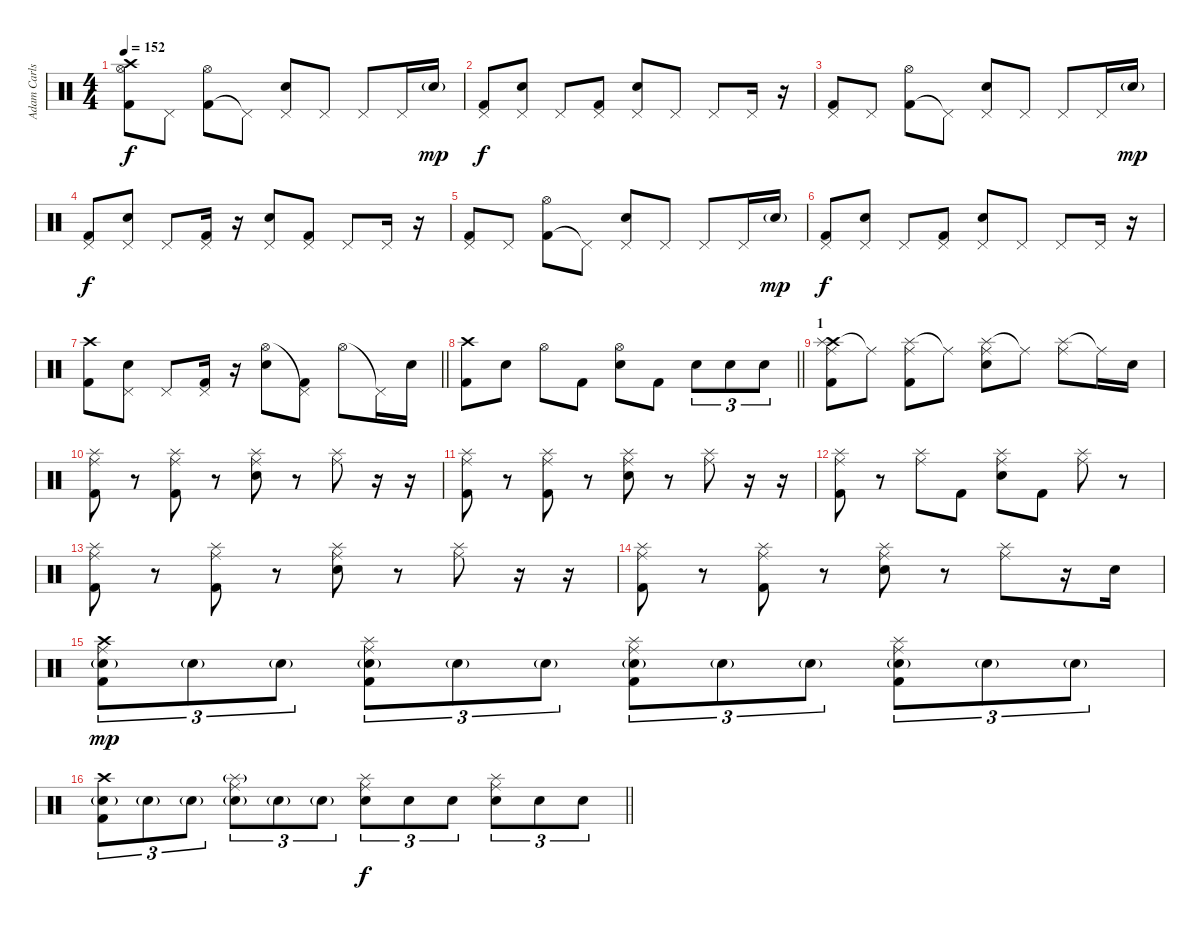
\track ("Adam Carlson" "Adam Carls") {instrument percussion}
\staff {score}
\articulation defaults
\ts (4 4)
\tempo 152
\clef neutral
\ks c
("Crash high (hit)" "Kick (hit) 2" "Hi-Hat (open)").8{dy f} "Pedal Hi-Hat (hit)".8 ("Kick (hit) 2" "Hi-Hat (open)").8 "Pedal Hi-Hat (hit)"{t}.8 ("Snare (hit) 2" "Pedal Hi-Hat (hit)").8 "Pedal Hi-Hat (hit)".8 "Pedal Hi-Hat (hit)".8 "Pedal Hi-Hat (hit)".16 "Snare (hit) 2"{g}.16{dy mp} |
("Kick (hit) 2" "Pedal Hi-Hat (hit)").8{dy f} ("Snare (hit) 2" "Pedal Hi-Hat (hit)").8 "Pedal Hi-Hat (hit)".8 ("Kick (hit) 2" "Pedal Hi-Hat (hit)").8 ("Snare (hit) 2" "Pedal Hi-Hat (hit)").8 "Pedal Hi-Hat (hit)".8 "Pedal Hi-Hat (hit)".8 "Pedal Hi-Hat (hit)".16 r.16 |
("Kick (hit) 2" "Pedal Hi-Hat (hit)").8 "Pedal Hi-Hat (hit)".8 ("Kick (hit) 2" "Hi-Hat (open)").8 "Pedal Hi-Hat (hit)"{t}.8 ("Snare (hit) 2" "Pedal Hi-Hat (hit)").8 "Pedal Hi-Hat (hit)".8 "Pedal Hi-Hat (hit)".8 "Pedal Hi-Hat (hit)".16 "Snare (hit) 2"{g}.16{dy mp} |
("Kick (hit) 2" "Pedal Hi-Hat (hit)").8{dy f} ("Snare (hit) 2" "Pedal Hi-Hat (hit)").8 "Pedal Hi-Hat (hit)".8 ("Kick (hit) 2" "Pedal Hi-Hat (hit)").16 r.16 ("Snare (hit) 2" "Pedal Hi-Hat (hit)").8 ("Kick (hit) 2" "Pedal Hi-Hat (hit)").8 "Pedal Hi-Hat (hit)".8 "Pedal Hi-Hat (hit)".16 r.16 |
("Kick (hit) 2" "Pedal Hi-Hat (hit)").8 "Pedal Hi-Hat (hit)".8 ("Kick (hit) 2" "Hi-Hat (open)").8 "Pedal Hi-Hat (hit)"{t}.8 ("Snare (hit) 2" "Pedal Hi-Hat (hit)").8 "Pedal Hi-Hat (hit)".8 "Pedal Hi-Hat (hit)".8 "Pedal Hi-Hat (hit)".16 "Snare (hit) 2"{g}.16{dy mp} |
("Kick (hit) 2" "Pedal Hi-Hat (hit)").8{dy f} ("Snare (hit) 2" "Pedal Hi-Hat (hit)").8 "Pedal Hi-Hat (hit)".8 ("Kick (hit) 2" "Pedal Hi-Hat (hit)").8 ("Snare (hit) 2" "Pedal Hi-Hat (hit)").8 "Pedal Hi-Hat (hit)".8 "Pedal Hi-Hat (hit)".8 "Pedal Hi-Hat (hit)".16 r.16 |
\barLineRight lightlight
("Crash high (hit)" "Kick (hit) 2").8 ("Snare (hit) 2" "Pedal Hi-Hat (hit)").8 "Pedal Hi-Hat (hit)".8 ("Kick (hit) 2" "Pedal Hi-Hat (hit)").16 r.16 ("Snare (hit) 2" "Hi-Hat (open)").8 ("Kick (hit) 2" "Pedal Hi-Hat (hit)"{t}).8 "Hi-Hat (open)".8 "Pedal Hi-Hat (hit)"{t}.16 "Snare (hit) 2".16 |
\barLineRight lightlight
("Kick (hit) 2" "Crash high (hit)").8 "Snare (hit) 2".8 "Hi-Hat (open)".8 "Kick (hit) 2".8 ("Snare (hit) 2" "Hi-Hat (open)").8 "Kick (hit) 2".8 "Snare (hit) 2".8{tu (3 2)} "Snare (hit) 2".8{tu (3 2)} "Snare (hit) 2".8{tu (3 2)} |
\section ("" "1")
("Crash high (hit)" "Splash (hit)" "Ride (middle)" "Kick (hit) 2").8 "Ride (middle)"{t}.8 ("Splash (hit)" "Ride (middle)" "Kick (hit) 2").8 "Ride (middle)"{t}.8 ("Splash (hit)" "Snare (hit) 2" "Ride (middle)").8 "Ride (middle)"{t}.8 ("Splash (hit)" "Ride (middle)").8 "Ride (middle)"{t}.16 "Snare (hit) 2".16 |
("Splash (hit)" "Ride (middle)" "Kick (hit) 2").8 r.8 ("Splash (hit)" "Ride (middle)" "Kick (hit) 2").8 r.8 ("Splash (hit)" "Snare (hit) 2" "Ride (middle)").8 r.8 ("Splash (hit)" "Ride (middle)").8 r.16 r.16 |
("Splash (hit)" "Ride (middle)" "Kick (hit) 2").8 r.8 ("Splash (hit)" "Ride (middle)" "Kick (hit) 2").8 r.8 ("Splash (hit)" "Snare (hit) 2" "Ride (middle)").8 r.8 ("Splash (hit)" "Ride (middle)").8 r.16 r.16 |
("Splash (hit)" "Ride (middle)" "Kick (hit) 2").8 r.8 ("Splash (hit)" "Ride (middle)").8 "Kick (hit) 2".8 ("Splash (hit)" "Snare (hit) 2" "Ride (middle)").8 "Kick (hit) 2".8 ("Splash (hit)" "Ride (middle)").8 r.8 |
("Splash (hit)" "Ride (middle)" "Kick (hit) 2").8 r.8 ("Splash (hit)" "Ride (middle)" "Kick (hit) 2").8 r.8 ("Splash (hit)" "Snare (hit) 2" "Ride (middle)").8 r.8 ("Splash (hit)" "Ride (middle)").8 r.16 r.16 |
("Splash (hit)" "Ride (middle)" "Kick (hit) 2").8 r.8 ("Splash (hit)" "Ride (middle)" "Kick (hit) 2").8 r.8 ("Splash (hit)" "Snare (hit) 2" "Ride (middle)").8 r.8 ("Splash (hit)" "Ride (middle)").8 r.16 "Snare (hit) 2".16 |
("Crash high (hit)" "Ride (middle)" "Snare (hit) 2"{g} "Kick (hit) 2").8{tu (3 2) dy mp} "Snare (hit) 2"{g}.8{tu (3 2)} "Snare (hit) 2"{g}.8{tu (3 2)} ("Ride (middle)" "Snare (hit) 2"{g} "Splash (hit)" "Kick (hit) 2").8{tu (3 2)} "Snare (hit) 2"{g}.8{tu (3 2)} "Snare (hit) 2"{g}.8{tu (3 2)} ("Ride (middle)" "Snare (hit) 2"{g} "Splash (hit)" "Kick (hit) 2").8{tu (3 2)} "Snare (hit) 2"{g}.8{tu (3 2)} "Snare (hit) 2"{g}.8{tu (3 2)} ("Ride (middle)" "Snare (hit) 2"{g} "Splash (hit)" "Kick (hit) 2").8{tu (3 2)} "Snare (hit) 2"{g}.8{tu (3 2)} "Snare (hit) 2"{g}.8{tu (3 2)} |
\barLineRight lightlight
("Snare (hit) 2"{g} "Crash high (hit)" "Kick (hit) 2").8{tu (3 2)} "Snare (hit) 2"{g}.8{tu (3 2)} "Snare (hit) 2"{g}.8{tu (3 2)} ("Snare (hit) 2"{g} "Ride (middle)" "Splash (hit)"{g}).8{tu (3 2)} "Snare (hit) 2"{g}.8{tu (3 2)} "Snare (hit) 2"{g}.8{tu (3 2)} ("Snare (hit) 2" "Ride (middle)" "Splash (hit)").8{tu (3 2) dy f} "Snare (hit) 2".8{tu (3 2)} "Snare (hit) 2".8{tu (3 2)} ("Snare (hit) 2" "Ride (middle)" "Splash (hit)").8{tu (3 2)} "Snare (hit) 2".8{tu (3 2)} "Snare (hit) 2".8{tu (3 2)}
